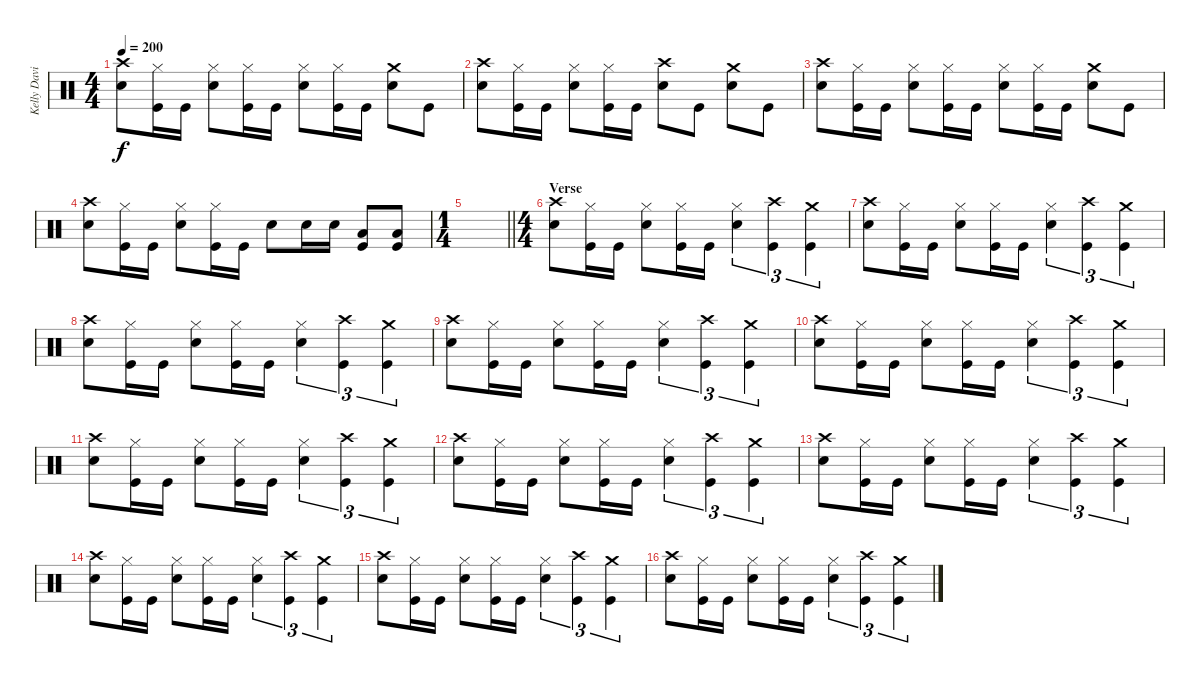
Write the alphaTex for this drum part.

\track ("Kelly David Smith" "Kelly Davi") {instrument percussion}
\staff {score}
\articulation defaults
\ts (4 4)
\tempo 200
\clef neutral
\ks c
("Crash high (hit)" "Snare (hit) 2").8{dy f} ("Hi-Hat (closed)" "Kick (hit)").16 "Kick (hit)".16 ("Hi-Hat (closed)" "Snare (hit) 2").8 ("Hi-Hat (closed)" "Kick (hit)").16 "Kick (hit)".16 ("Hi-Hat (closed)" "Snare (hit) 2").8 ("Hi-Hat (closed)" "Kick (hit)").16 "Kick (hit)".16 ("Crash medium (hit)" "Snare (hit) 2").8 "Kick (hit)".8 |
("Crash high (hit)" "Snare (hit) 2").8 ("Hi-Hat (closed)" "Kick (hit)").16 "Kick (hit)".16 ("Hi-Hat (closed)" "Snare (hit) 2").8 ("Hi-Hat (closed)" "Kick (hit)").16 "Kick (hit)".16 ("Crash high (hit)" "Snare (hit) 2").8 "Kick (hit)".8 ("Crash medium (hit)" "Snare (hit) 2").8 "Kick (hit)".8 |
("Crash high (hit)" "Snare (hit) 2").8 ("Hi-Hat (closed)" "Kick (hit)").16 "Kick (hit)".16 ("Hi-Hat (closed)" "Snare (hit) 2").8 ("Hi-Hat (closed)" "Kick (hit)").16 "Kick (hit)".16 ("Hi-Hat (closed)" "Snare (hit) 2").8 ("Hi-Hat (closed)" "Kick (hit)").16 "Kick (hit)".16 ("Crash medium (hit)" "Snare (hit) 2").8 "Kick (hit)".8 |
("Crash high (hit)" "Snare (hit) 2").8 ("Hi-Hat (closed)" "Kick (hit)").16 "Kick (hit)".16 ("Hi-Hat (closed)" "Snare (hit) 2").8 ("Hi-Hat (closed)" "Kick (hit)").16 "Kick (hit)".16 "Snare (hit) 2".8 "Snare (hit) 2".16 "Snare (hit) 2".16 ("Low Floor Tom (hit)" "Kick (hit)").8 ("Low Floor Tom (hit)" "Kick (hit)").8 |
\ts (1 4)
\barLineRight lightlight
|
\ts (4 4)
\section ("" "Verse")
("Crash high (hit)" "Snare (hit) 2").8 ("Hi-Hat (closed)" "Kick (hit)").16 "Kick (hit)".16 ("Hi-Hat (closed)" "Snare (hit) 2").8 ("Hi-Hat (closed)" "Kick (hit)").16 "Kick (hit)".16 ("Hi-Hat (closed)" "Snare (hit) 2").4{tu (3 2)} ("Crash high (hit)" "Kick (hit)").4{tu (3 2)} ("Crash medium (hit)" "Kick (hit)").4{tu (3 2)} |
("Crash high (hit)" "Snare (hit) 2").8 ("Hi-Hat (closed)" "Kick (hit)").16 "Kick (hit)".16 ("Hi-Hat (closed)" "Snare (hit) 2").8 ("Hi-Hat (closed)" "Kick (hit)").16 "Kick (hit)".16 ("Hi-Hat (closed)" "Snare (hit) 2").4{tu (3 2)} ("Crash high (hit)" "Kick (hit)").4{tu (3 2)} ("Crash medium (hit)" "Kick (hit)").4{tu (3 2)} |
("Crash high (hit)" "Snare (hit) 2").8 ("Hi-Hat (closed)" "Kick (hit)").16 "Kick (hit)".16 ("Hi-Hat (closed)" "Snare (hit) 2").8 ("Hi-Hat (closed)" "Kick (hit)").16 "Kick (hit)".16 ("Hi-Hat (closed)" "Snare (hit) 2").4{tu (3 2)} ("Crash high (hit)" "Kick (hit)").4{tu (3 2)} ("Crash medium (hit)" "Kick (hit)").4{tu (3 2)} |
("Crash high (hit)" "Snare (hit) 2").8 ("Hi-Hat (closed)" "Kick (hit)").16 "Kick (hit)".16 ("Hi-Hat (closed)" "Snare (hit) 2").8 ("Hi-Hat (closed)" "Kick (hit)").16 "Kick (hit)".16 ("Hi-Hat (closed)" "Snare (hit) 2").4{tu (3 2)} ("Crash high (hit)" "Kick (hit)").4{tu (3 2)} ("Crash medium (hit)" "Kick (hit)").4{tu (3 2)} |
("Crash high (hit)" "Snare (hit) 2").8 ("Hi-Hat (closed)" "Kick (hit)").16 "Kick (hit)".16 ("Hi-Hat (closed)" "Snare (hit) 2").8 ("Hi-Hat (closed)" "Kick (hit)").16 "Kick (hit)".16 ("Hi-Hat (closed)" "Snare (hit) 2").4{tu (3 2)} ("Crash high (hit)" "Kick (hit)").4{tu (3 2)} ("Crash medium (hit)" "Kick (hit)").4{tu (3 2)} |
("Crash high (hit)" "Snare (hit) 2").8 ("Hi-Hat (closed)" "Kick (hit)").16 "Kick (hit)".16 ("Hi-Hat (closed)" "Snare (hit) 2").8 ("Hi-Hat (closed)" "Kick (hit)").16 "Kick (hit)".16 ("Hi-Hat (closed)" "Snare (hit) 2").4{tu (3 2)} ("Crash high (hit)" "Kick (hit)").4{tu (3 2)} ("Crash medium (hit)" "Kick (hit)").4{tu (3 2)} |
("Crash high (hit)" "Snare (hit) 2").8 ("Hi-Hat (closed)" "Kick (hit)").16 "Kick (hit)".16 ("Hi-Hat (closed)" "Snare (hit) 2").8 ("Hi-Hat (closed)" "Kick (hit)").16 "Kick (hit)".16 ("Hi-Hat (closed)" "Snare (hit) 2").4{tu (3 2)} ("Crash high (hit)" "Kick (hit)").4{tu (3 2)} ("Crash medium (hit)" "Kick (hit)").4{tu (3 2)} |
("Crash high (hit)" "Snare (hit) 2").8 ("Hi-Hat (closed)" "Kick (hit)").16 "Kick (hit)".16 ("Hi-Hat (closed)" "Snare (hit) 2").8 ("Hi-Hat (closed)" "Kick (hit)").16 "Kick (hit)".16 ("Hi-Hat (closed)" "Snare (hit) 2").4{tu (3 2)} ("Crash high (hit)" "Kick (hit)").4{tu (3 2)} ("Crash medium (hit)" "Kick (hit)").4{tu (3 2)} |
("Crash high (hit)" "Snare (hit) 2").8 ("Hi-Hat (closed)" "Kick (hit)").16 "Kick (hit)".16 ("Hi-Hat (closed)" "Snare (hit) 2").8 ("Hi-Hat (closed)" "Kick (hit)").16 "Kick (hit)".16 ("Hi-Hat (closed)" "Snare (hit) 2").4{tu (3 2)} ("Crash high (hit)" "Kick (hit)").4{tu (3 2)} ("Crash medium (hit)" "Kick (hit)").4{tu (3 2)} |
("Crash high (hit)" "Snare (hit) 2").8 ("Hi-Hat (closed)" "Kick (hit)").16 "Kick (hit)".16 ("Hi-Hat (closed)" "Snare (hit) 2").8 ("Hi-Hat (closed)" "Kick (hit)").16 "Kick (hit)".16 ("Hi-Hat (closed)" "Snare (hit) 2").4{tu (3 2)} ("Crash high (hit)" "Kick (hit)").4{tu (3 2)} ("Crash medium (hit)" "Kick (hit)").4{tu (3 2)} |
("Crash high (hit)" "Snare (hit) 2").8 ("Hi-Hat (closed)" "Kick (hit)").16 "Kick (hit)".16 ("Hi-Hat (closed)" "Snare (hit) 2").8 ("Hi-Hat (closed)" "Kick (hit)").16 "Kick (hit)".16 ("Hi-Hat (closed)" "Snare (hit) 2").4{tu (3 2)} ("Crash high (hit)" "Kick (hit)").4{tu (3 2)} ("Crash medium (hit)" "Kick (hit)").4{tu (3 2)}
